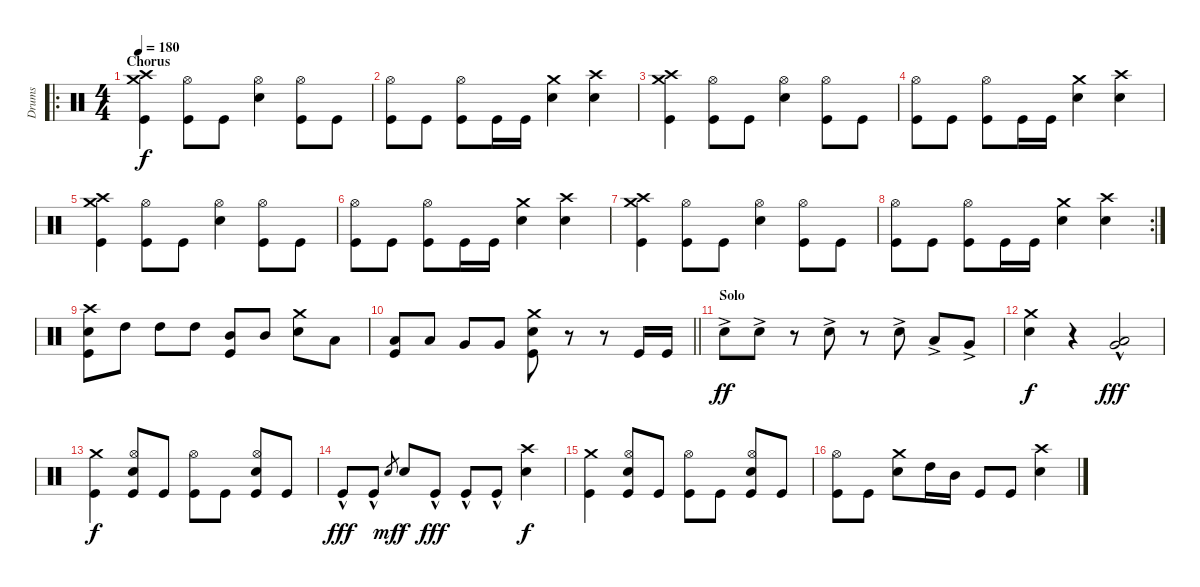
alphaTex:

\track ("Drums" "Drums") {instrument percussion}
\staff {score}
\articulation defaults
\ro
\ts (4 4)
\section ("" "Chorus")
\tempo 180
\clef neutral
\ks c
("Crash medium (hit)" "Crash high (hit)" "Kick (hit)").4{dy f} ("Hi-Hat (open)" "Kick (hit)").8 "Kick (hit)".8 ("Hi-Hat (open)" "Electric Snare (hit)").4 ("Hi-Hat (open)" "Kick (hit)").8 "Kick (hit)".8 |
("Hi-Hat (open)" "Kick (hit)").8 "Kick (hit)".8 ("Hi-Hat (open)" "Kick (hit)").8 "Kick (hit)".16 "Kick (hit)".16 ("Crash medium (hit)" "Electric Snare (hit)").4 ("Crash high (hit)" "Electric Snare (hit)").4 |
("Crash medium (hit)" "Crash high (hit)" "Kick (hit)").4 ("Hi-Hat (open)" "Kick (hit)").8 "Kick (hit)".8 ("Hi-Hat (open)" "Electric Snare (hit)").4 ("Hi-Hat (open)" "Kick (hit)").8 "Kick (hit)".8 |
("Hi-Hat (open)" "Kick (hit)").8 "Kick (hit)".8 ("Hi-Hat (open)" "Kick (hit)").8 "Kick (hit)".16 "Kick (hit)".16 ("Crash medium (hit)" "Electric Snare (hit)").4 ("Crash high (hit)" "Electric Snare (hit)").4 |
("Crash medium (hit)" "Crash high (hit)" "Kick (hit)").4 ("Hi-Hat (open)" "Kick (hit)").8 "Kick (hit)".8 ("Hi-Hat (open)" "Electric Snare (hit)").4 ("Hi-Hat (open)" "Kick (hit)").8 "Kick (hit)".8 |
("Hi-Hat (open)" "Kick (hit)").8 "Kick (hit)".8 ("Hi-Hat (open)" "Kick (hit)").8 "Kick (hit)".16 "Kick (hit)".16 ("Crash medium (hit)" "Electric Snare (hit)").4 ("Crash high (hit)" "Electric Snare (hit)").4 |
("Crash medium (hit)" "Crash high (hit)" "Kick (hit)").4 ("Hi-Hat (open)" "Kick (hit)").8 "Kick (hit)".8 ("Hi-Hat (open)" "Electric Snare (hit)").4 ("Hi-Hat (open)" "Kick (hit)").8 "Kick (hit)".8 |
\rc 2
("Hi-Hat (open)" "Kick (hit)").8 "Kick (hit)".8 ("Hi-Hat (open)" "Kick (hit)").8 "Kick (hit)".16 "Kick (hit)".16 ("Crash medium (hit)" "Electric Snare (hit)").4 ("Crash high (hit)" "Electric Snare (hit)").4 |
("Crash high (hit)" "Electric Snare (hit)" "Kick (hit)").8 "High Tom (hit)".8 "High Tom (hit)".8 "High Tom (hit)".8 ("Mid Tom (hit)" "Kick (hit)").8 "Mid Tom (hit)".8 ("Crash medium (hit)" "Electric Snare (hit)").8 "Low Tom (hit)".8 |
\barLineRight lightlight
("Low Tom (hit)" "Kick (hit)").8 "Low Tom (hit)".8 "Very Low Tom (hit)".8 "Very Low Tom (hit)".8 ("Crash medium (hit)" "Electric Snare (hit)" "Kick (hit)").8 r.8 r.8 "Kick (hit)".16 "Kick (hit)".16 |
\section ("" "Solo")
"Electric Snare (hit)"{ac}.8{dy ff} "Electric Snare (hit)"{ac}.8 r.8 "Electric Snare (hit)"{ac}.8 r.8 "Electric Snare (hit)"{ac}.8 "Low Tom (hit)"{ac}.8 "Very Low Tom (hit)"{ac}.8 |
("Crash medium (hit)" "Electric Snare (hit)").4{dy f} r.4 ("Very Low Tom (hit)"{hac} "Low Floor Tom (hit)"{hac}).2{dy fff} |
("Crash medium (hit)" "Kick (hit)").4{dy f} ("Hi-Hat (open)" "Electric Snare (hit)" "Kick (hit)").8 "Kick (hit)".8 ("Hi-Hat (open)" "Kick (hit)").8 "Kick (hit)".8 ("Hi-Hat (open)" "Electric Snare (hit)" "Kick (hit)").8 "Kick (hit)".8 |
"Kick (hit)"{hac}.8{dy fff} "Kick (hit)"{hac}.8 "Electric Snare (hit)"{h}.8{gr dy mf} "Electric Snare (hit)".8{dy f} "Kick (hit)"{hac}.8{dy fff} "Kick (hit)"{hac}.8 "Kick (hit)"{hac}.8 ("Crash high (hit)" "Electric Snare (hit)").4{dy f} |
("Crash medium (hit)" "Kick (hit)").4 ("Hi-Hat (open)" "Electric Snare (hit)" "Kick (hit)").8 "Kick (hit)".8 ("Hi-Hat (open)" "Kick (hit)").8 "Kick (hit)".8 ("Hi-Hat (open)" "Electric Snare (hit)" "Kick (hit)").8 "Kick (hit)".8 |
("Hi-Hat (open)" "Kick (hit)").8 "Kick (hit)".8 ("Crash medium (hit)" "Electric Snare (hit)").8 "High Tom (hit)".16 "Mid Tom (hit)".16 "Kick (hit)".8 "Kick (hit)".8 ("Crash high (hit)" "Electric Snare (hit)").4
